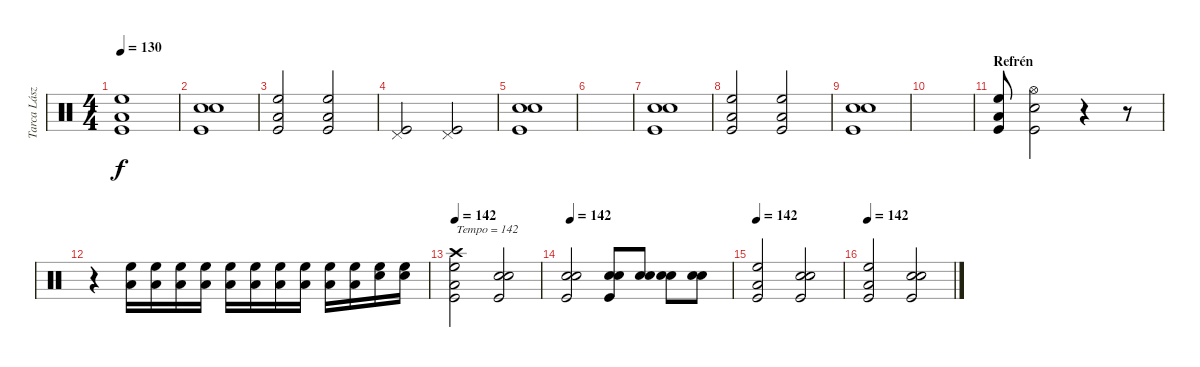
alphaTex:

\track ("Tarca László" "Tarca Lász") {instrument percussion}
\staff {score}
\articulation defaults
\ts (4 4)
\tempo 130
\clef neutral
\ks c
("Low Tom (hit)" "High Floor Tom (hit)" "Kick (hit)").1{dy f} |
("Snare (hit) 2" "Snare (hit) 2" "Kick (hit)").1 |
("Low Tom (hit)" "High Floor Tom (hit)" "Kick (hit)").2 ("Low Tom (hit)" "High Floor Tom (hit)" "Kick (hit)").2 |
("Pedal Hi-Hat (hit)" "Kick (hit)").2 ("Pedal Hi-Hat (hit)" "Kick (hit)").2 |
("Snare (hit) 2" "Snare (hit) 2" "Kick (hit)").1 |
|
("Snare (hit) 2" "Snare (hit) 2" "Kick (hit)").1 |
("Low Tom (hit)" "High Floor Tom (hit)" "Kick (hit)").2 ("Low Tom (hit)" "High Floor Tom (hit)" "Kick (hit)").2 |
("Snare (hit) 2" "Snare (hit) 2" "Kick (hit)").1 |
|
\section ("" "Refrén")
("Low Tom (hit)" "High Floor Tom (hit)" "Kick (hit)").8 ("Hi-Hat (open)" "Snare (hit) 2" "Kick (hit)").2 r.4 r.8 |
r.4 ("Low Tom (hit)" "High Floor Tom (hit)").16 ("Low Tom (hit)" "High Floor Tom (hit)").16 ("Low Tom (hit)" "High Floor Tom (hit)").16 ("Low Tom (hit)" "High Floor Tom (hit)").16 ("Low Tom (hit)" "High Floor Tom (hit)").16 ("Low Tom (hit)" "High Floor Tom (hit)").16 ("Low Tom (hit)" "High Floor Tom (hit)").16 ("Low Tom (hit)" "High Floor Tom (hit)").16 ("Low Tom (hit)" "High Floor Tom (hit)").16 ("Low Tom (hit)" "High Floor Tom (hit)").16 ("Snare (hit) 2" "High Floor Tom (hit)").16 ("Snare (hit) 2" "High Floor Tom (hit)").16 |
\tempo 142
("Crash high (hit)" "Low Tom (hit)" "High Floor Tom (hit)" "Kick (hit)").2{txt "Tempo = 142"} ("Snare (hit) 2" "Snare (hit) 2" "Kick (hit)").2 |
\tempo 142
("Snare (hit) 2" "Snare (hit) 2" "Kick (hit)").2 ("Snare (hit) 2" "Snare (hit) 2" "Kick (hit)").8 ("Snare (hit) 2" "Snare (hit) 2").8 ("Snare (hit) 2" "Snare (hit) 2").8 ("Snare (hit) 2" "Snare (hit) 2").8 |
\tempo 142
("Low Tom (hit)" "High Floor Tom (hit)" "Kick (hit)").2 ("Snare (hit) 2" "Snare (hit) 2" "Kick (hit)").2 |
\tempo 142
("Low Tom (hit)" "High Floor Tom (hit)" "Kick (hit)").2 ("Snare (hit) 2" "Snare (hit) 2" "Kick (hit)").2
